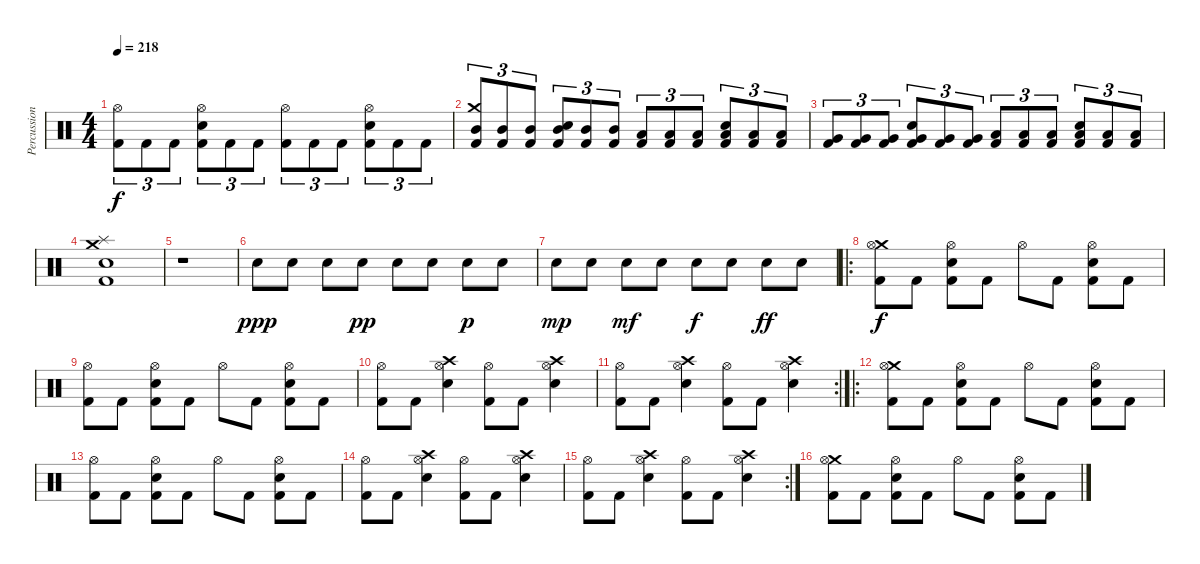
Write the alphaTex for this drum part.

\track ("Percussion" "Percussion") {instrument percussion}
\staff {score}
\articulation defaults
\ts (4 4)
\tempo 218
\clef neutral
\ks c
("Hi-Hat (open)" "Kick (hit) 2").8{tu (3 2) dy f} "Kick (hit) 2".8{tu (3 2)} "Kick (hit) 2".8{tu (3 2)} ("Hi-Hat (open)" "Electric Snare (hit)" "Kick (hit) 2").8{tu (3 2)} "Kick (hit) 2".8{tu (3 2)} "Kick (hit) 2".8{tu (3 2)} ("Hi-Hat (open)" "Kick (hit) 2").8{tu (3 2)} "Kick (hit) 2".8{tu (3 2)} "Kick (hit) 2".8{tu (3 2)} ("Hi-Hat (open)" "Electric Snare (hit)" "Kick (hit) 2").8{tu (3 2)} "Kick (hit) 2".8{tu (3 2)} "Kick (hit) 2".8{tu (3 2)} |
("Crash medium (hit)" "Mid Tom (hit)" "Kick (hit) 2").8{tu (3 2)} ("Mid Tom (hit)" "Kick (hit) 2").8{tu (3 2)} ("Mid Tom (hit)" "Kick (hit) 2").8{tu (3 2)} ("Mid Tom (hit)" "Electric Snare (hit)" "Kick (hit) 2").8{tu (3 2)} ("Mid Tom (hit)" "Kick (hit) 2").8{tu (3 2)} ("Mid Tom (hit)" "Kick (hit) 2").8{tu (3 2)} ("Low Tom (hit)" "Kick (hit) 2").8{tu (3 2)} ("Low Tom (hit)" "Kick (hit) 2").8{tu (3 2)} ("Low Tom (hit)" "Kick (hit) 2").8{tu (3 2)} ("Low Tom (hit)" "Electric Snare (hit)" "Kick (hit) 2").8{tu (3 2)} ("Low Tom (hit)" "Kick (hit) 2").8{tu (3 2)} ("Low Tom (hit)" "Kick (hit) 2").8{tu (3 2)} |
("Very Low Tom (hit)" "Kick (hit) 2").8{tu (3 2)} ("Very Low Tom (hit)" "Kick (hit) 2").8{tu (3 2)} ("Very Low Tom (hit)" "Kick (hit) 2").8{tu (3 2)} ("Very Low Tom (hit)" "Electric Snare (hit)" "Kick (hit) 2").8{tu (3 2)} ("Very Low Tom (hit)" "Kick (hit) 2").8{tu (3 2)} ("Very Low Tom (hit)" "Kick (hit) 2").8{tu (3 2)} ("Low Floor Tom (hit)" "Kick (hit) 2").8{tu (3 2)} ("Low Floor Tom (hit)" "Kick (hit) 2").8{tu (3 2)} ("Low Floor Tom (hit)" "Kick (hit) 2").8{tu (3 2)} ("Low Floor Tom (hit)" "Electric Snare (hit)" "Kick (hit) 2").8{tu (3 2)} ("Low Floor Tom (hit)" "Kick (hit) 2").8{tu (3 2)} ("Low Floor Tom (hit)" "Kick (hit) 2").8{tu (3 2)} |
("Crash medium (hit)" "Splash (hit)" "Electric Snare (hit)" "Kick (hit) 2").1 |
r.1 |
"Electric Snare (hit)".8{dy ppp} "Electric Snare (hit)".8 "Electric Snare (hit)".8 "Electric Snare (hit)".8{dy pp} "Electric Snare (hit)".8 "Electric Snare (hit)".8 "Electric Snare (hit)".8{dy p} "Electric Snare (hit)".8 |
"Electric Snare (hit)".8{dy mp} "Electric Snare (hit)".8 "Electric Snare (hit)".8{dy mf} "Electric Snare (hit)".8 "Electric Snare (hit)".8{dy f} "Electric Snare (hit)".8 "Electric Snare (hit)".8{dy ff} "Electric Snare (hit)".8 |
\ro
("Crash medium (hit)" "Hi-Hat (open)" "Kick (hit) 2").8{dy f} "Kick (hit) 2".8 ("Hi-Hat (open)" "Electric Snare (hit)" "Kick (hit) 2").8 "Kick (hit) 2".8 "Hi-Hat (open)".8 "Kick (hit) 2".8 ("Hi-Hat (open)" "Electric Snare (hit)" "Kick (hit) 2").8 "Kick (hit) 2".8 |
("Hi-Hat (open)" "Kick (hit) 2").8 "Kick (hit) 2".8 ("Hi-Hat (open)" "Electric Snare (hit)" "Kick (hit) 2").8 "Kick (hit) 2".8 "Hi-Hat (open)".8 "Kick (hit) 2".8 ("Hi-Hat (open)" "Electric Snare (hit)" "Kick (hit) 2").8 "Kick (hit) 2".8 |
("Hi-Hat (open)" "Kick (hit) 2").8 "Kick (hit) 2".8 ("Crash high (hit)" "Hi-Hat (open)" "Electric Snare (hit)").4 ("Hi-Hat (open)" "Kick (hit) 2").8 "Kick (hit) 2".8 ("Crash high (hit)" "Hi-Hat (open)" "Electric Snare (hit)").4 |
\rc 2
("Hi-Hat (open)" "Kick (hit) 2").8 "Kick (hit) 2".8 ("Crash high (hit)" "Hi-Hat (open)" "Electric Snare (hit)").4 ("Hi-Hat (open)" "Kick (hit) 2").8 "Kick (hit) 2".8 ("Crash high (hit)" "Hi-Hat (open)" "Electric Snare (hit)").4 |
\ro
("Crash medium (hit)" "Hi-Hat (open)" "Kick (hit) 2").8 "Kick (hit) 2".8 ("Hi-Hat (open)" "Electric Snare (hit)" "Kick (hit) 2").8 "Kick (hit) 2".8 "Hi-Hat (open)".8 "Kick (hit) 2".8 ("Hi-Hat (open)" "Electric Snare (hit)" "Kick (hit) 2").8 "Kick (hit) 2".8 |
("Hi-Hat (open)" "Kick (hit) 2").8 "Kick (hit) 2".8 ("Hi-Hat (open)" "Electric Snare (hit)" "Kick (hit) 2").8 "Kick (hit) 2".8 "Hi-Hat (open)".8 "Kick (hit) 2".8 ("Hi-Hat (open)" "Electric Snare (hit)" "Kick (hit) 2").8 "Kick (hit) 2".8 |
("Hi-Hat (open)" "Kick (hit) 2").8 "Kick (hit) 2".8 ("Crash high (hit)" "Hi-Hat (open)" "Electric Snare (hit)").4 ("Hi-Hat (open)" "Kick (hit) 2").8 "Kick (hit) 2".8 ("Crash high (hit)" "Hi-Hat (open)" "Electric Snare (hit)").4 |
\rc 2
("Hi-Hat (open)" "Kick (hit) 2").8 "Kick (hit) 2".8 ("Crash high (hit)" "Hi-Hat (open)" "Electric Snare (hit)").4 ("Hi-Hat (open)" "Kick (hit) 2").8 "Kick (hit) 2".8 ("Crash high (hit)" "Hi-Hat (open)" "Electric Snare (hit)").4 |
("Crash medium (hit)" "Hi-Hat (open)" "Kick (hit) 2").8 "Kick (hit) 2".8 ("Hi-Hat (open)" "Electric Snare (hit)" "Kick (hit) 2").8 "Kick (hit) 2".8 "Hi-Hat (open)".8 "Kick (hit) 2".8 ("Hi-Hat (open)" "Electric Snare (hit)" "Kick (hit) 2").8 "Kick (hit) 2".8
